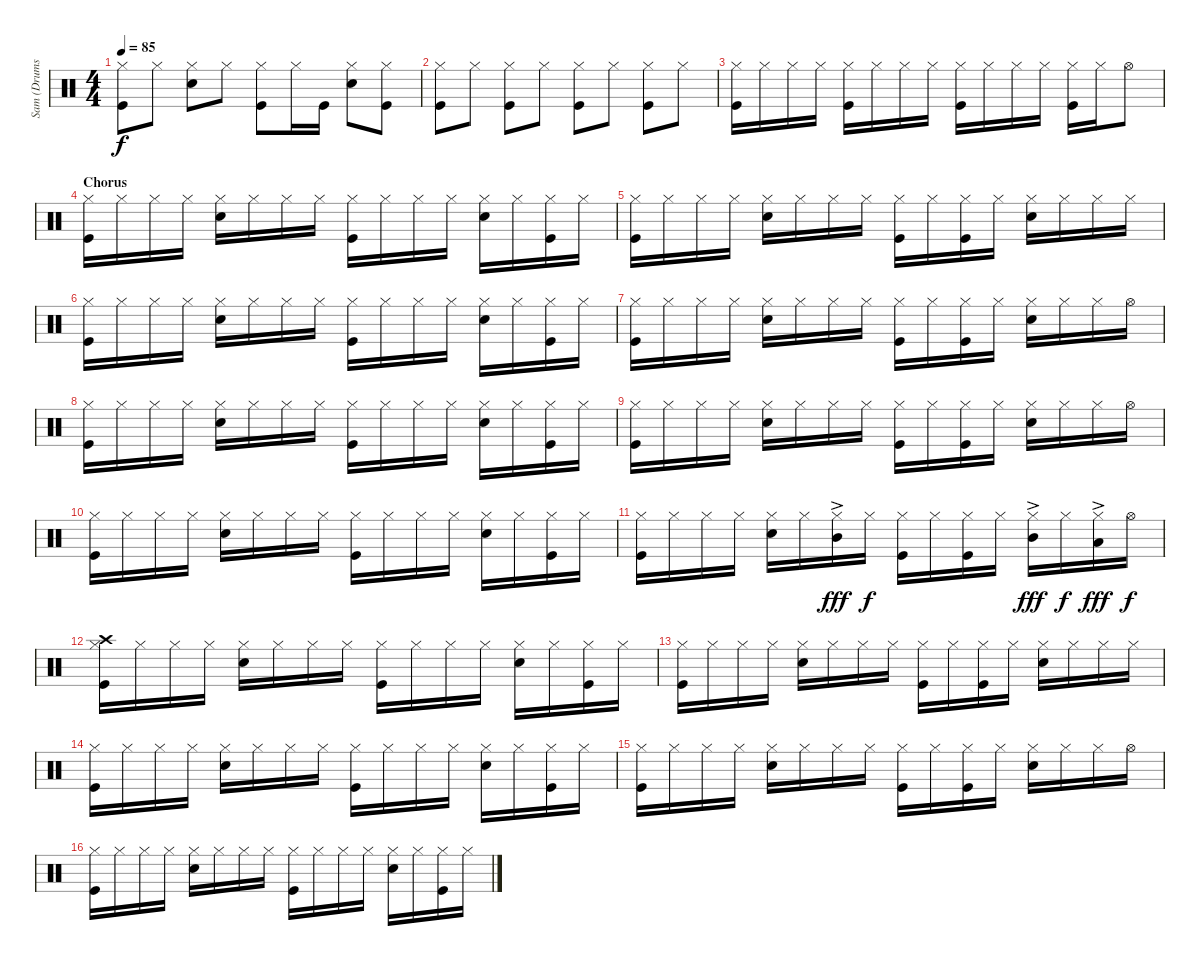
\track ("Sam (Drums)" "Sam (Drums") {instrument percussion}
\staff {score}
\articulation defaults
\ts (4 4)
\tempo 85
\clef neutral
\ks c
("Hi-Hat (closed)" "Kick (hit)").8{dy f} "Hi-Hat (closed)".8 ("Hi-Hat (closed)" "Snare (hit) 2").8 "Hi-Hat (closed)".8 ("Hi-Hat (closed)" "Kick (hit)").8 "Hi-Hat (closed)".16 "Kick (hit)".16 ("Hi-Hat (closed)" "Snare (hit) 2").8 ("Hi-Hat (closed)" "Kick (hit)").8 |
("Hi-Hat (closed)" "Kick (hit)").8 "Hi-Hat (closed)".8 ("Hi-Hat (closed)" "Kick (hit)").8 "Hi-Hat (closed)".8 ("Hi-Hat (closed)" "Kick (hit)").8 "Hi-Hat (closed)".8 ("Hi-Hat (closed)" "Kick (hit)").8 "Hi-Hat (closed)".8 |
("Hi-Hat (closed)" "Kick (hit)").16 "Hi-Hat (closed)".16 "Hi-Hat (closed)".16 "Hi-Hat (closed)".16 ("Hi-Hat (closed)" "Kick (hit)").16 "Hi-Hat (closed)".16 "Hi-Hat (closed)".16 "Hi-Hat (closed)".16 ("Hi-Hat (closed)" "Kick (hit)").16 "Hi-Hat (closed)".16 "Hi-Hat (closed)".16 "Hi-Hat (closed)".16 ("Hi-Hat (closed)" "Kick (hit)").16 "Hi-Hat (closed)".16 "Hi-Hat (open)".8 |
\section ("" "Chorus")
("Hi-Hat (closed)" "Kick (hit)").16 "Hi-Hat (closed)".16 "Hi-Hat (closed)".16 "Hi-Hat (closed)".16 ("Hi-Hat (closed)" "Snare (hit) 2").16 "Hi-Hat (closed)".16 "Hi-Hat (closed)".16 "Hi-Hat (closed)".16 ("Hi-Hat (closed)" "Kick (hit)").16 "Hi-Hat (closed)".16 "Hi-Hat (closed)".16 "Hi-Hat (closed)".16 ("Hi-Hat (closed)" "Snare (hit) 2").16 "Hi-Hat (closed)".16 ("Hi-Hat (closed)" "Kick (hit)").16 "Hi-Hat (closed)".16 |
("Hi-Hat (closed)" "Kick (hit)").16 "Hi-Hat (closed)".16 "Hi-Hat (closed)".16 "Hi-Hat (closed)".16 ("Hi-Hat (closed)" "Snare (hit) 2").16 "Hi-Hat (closed)".16 "Hi-Hat (closed)".16 "Hi-Hat (closed)".16 ("Hi-Hat (closed)" "Kick (hit)").16 "Hi-Hat (closed)".16 ("Hi-Hat (closed)" "Kick (hit)").16 "Hi-Hat (closed)".16 ("Hi-Hat (closed)" "Snare (hit) 2").16 "Hi-Hat (closed)".16 "Hi-Hat (closed)".16 "Hi-Hat (closed)".16 |
("Hi-Hat (closed)" "Kick (hit)").16 "Hi-Hat (closed)".16 "Hi-Hat (closed)".16 "Hi-Hat (closed)".16 ("Hi-Hat (closed)" "Snare (hit) 2").16 "Hi-Hat (closed)".16 "Hi-Hat (closed)".16 "Hi-Hat (closed)".16 ("Hi-Hat (closed)" "Kick (hit)").16 "Hi-Hat (closed)".16 "Hi-Hat (closed)".16 "Hi-Hat (closed)".16 ("Hi-Hat (closed)" "Snare (hit) 2").16 "Hi-Hat (closed)".16 ("Hi-Hat (closed)" "Kick (hit)").16 "Hi-Hat (closed)".16 |
("Hi-Hat (closed)" "Kick (hit)").16 "Hi-Hat (closed)".16 "Hi-Hat (closed)".16 "Hi-Hat (closed)".16 ("Hi-Hat (closed)" "Snare (hit) 2").16 "Hi-Hat (closed)".16 "Hi-Hat (closed)".16 "Hi-Hat (closed)".16 ("Hi-Hat (closed)" "Kick (hit)").16 "Hi-Hat (closed)".16 ("Hi-Hat (closed)" "Kick (hit)").16 "Hi-Hat (closed)".16 ("Hi-Hat (closed)" "Snare (hit) 2").16 "Hi-Hat (closed)".16 "Hi-Hat (closed)".16 "Hi-Hat (open)".16 |
("Hi-Hat (closed)" "Kick (hit)").16 "Hi-Hat (closed)".16 "Hi-Hat (closed)".16 "Hi-Hat (closed)".16 ("Hi-Hat (closed)" "Snare (hit) 2").16 "Hi-Hat (closed)".16 "Hi-Hat (closed)".16 "Hi-Hat (closed)".16 ("Hi-Hat (closed)" "Kick (hit)").16 "Hi-Hat (closed)".16 "Hi-Hat (closed)".16 "Hi-Hat (closed)".16 ("Hi-Hat (closed)" "Snare (hit) 2").16 "Hi-Hat (closed)".16 ("Hi-Hat (closed)" "Kick (hit)").16 "Hi-Hat (closed)".16 |
("Hi-Hat (closed)" "Kick (hit)").16 "Hi-Hat (closed)".16 "Hi-Hat (closed)".16 "Hi-Hat (closed)".16 ("Hi-Hat (closed)" "Snare (hit) 2").16 "Hi-Hat (closed)".16 "Hi-Hat (closed)".16 "Hi-Hat (closed)".16 ("Hi-Hat (closed)" "Kick (hit)").16 "Hi-Hat (closed)".16 ("Hi-Hat (closed)" "Kick (hit)").16 "Hi-Hat (closed)".16 ("Hi-Hat (closed)" "Snare (hit) 2").16 "Hi-Hat (closed)".16 "Hi-Hat (closed)".16 "Hi-Hat (open)".16 |
("Hi-Hat (closed)" "Kick (hit)").16 "Hi-Hat (closed)".16 "Hi-Hat (closed)".16 "Hi-Hat (closed)".16 ("Hi-Hat (closed)" "Snare (hit) 2").16 "Hi-Hat (closed)".16 "Hi-Hat (closed)".16 "Hi-Hat (closed)".16 ("Hi-Hat (closed)" "Kick (hit)").16 "Hi-Hat (closed)".16 "Hi-Hat (closed)".16 "Hi-Hat (closed)".16 ("Hi-Hat (closed)" "Snare (hit) 2").16 "Hi-Hat (closed)".16 ("Hi-Hat (closed)" "Kick (hit)").16 "Hi-Hat (closed)".16 |
("Hi-Hat (closed)" "Kick (hit)").16 "Hi-Hat (closed)".16 "Hi-Hat (closed)".16 "Hi-Hat (closed)".16 ("Hi-Hat (closed)" "Snare (hit) 2").16 "Hi-Hat (closed)".16 ("Hi-Hat (closed)" "Mid Tom (hit)"{ac}).16{dy fff} "Hi-Hat (closed)".16{dy f} ("Hi-Hat (closed)" "Kick (hit)").16 "Hi-Hat (closed)".16 ("Hi-Hat (closed)" "Kick (hit)").16 "Hi-Hat (closed)".16 ("Hi-Hat (closed)" "Mid Tom (hit)"{ac}).16{dy fff} "Hi-Hat (closed)".16{dy f} ("Hi-Hat (closed)" "Low Tom (hit)"{ac}).16{dy fff} "Hi-Hat (open)".16{dy f} |
("Crash high (hit)" "Hi-Hat (closed)" "Kick (hit)").16 "Hi-Hat (closed)".16 "Hi-Hat (closed)".16 "Hi-Hat (closed)".16 ("Hi-Hat (closed)" "Snare (hit) 2").16 "Hi-Hat (closed)".16 "Hi-Hat (closed)".16 "Hi-Hat (closed)".16 ("Hi-Hat (closed)" "Kick (hit)").16 "Hi-Hat (closed)".16 "Hi-Hat (closed)".16 "Hi-Hat (closed)".16 ("Hi-Hat (closed)" "Snare (hit) 2").16 "Hi-Hat (closed)".16 ("Hi-Hat (closed)" "Kick (hit)").16 "Hi-Hat (closed)".16 |
("Hi-Hat (closed)" "Kick (hit)").16 "Hi-Hat (closed)".16 "Hi-Hat (closed)".16 "Hi-Hat (closed)".16 ("Hi-Hat (closed)" "Snare (hit) 2").16 "Hi-Hat (closed)".16 "Hi-Hat (closed)".16 "Hi-Hat (closed)".16 ("Hi-Hat (closed)" "Kick (hit)").16 "Hi-Hat (closed)".16 ("Hi-Hat (closed)" "Kick (hit)").16 "Hi-Hat (closed)".16 ("Hi-Hat (closed)" "Snare (hit) 2").16 "Hi-Hat (closed)".16 "Hi-Hat (closed)".16 "Hi-Hat (closed)".16 |
("Hi-Hat (closed)" "Kick (hit)").16 "Hi-Hat (closed)".16 "Hi-Hat (closed)".16 "Hi-Hat (closed)".16 ("Hi-Hat (closed)" "Snare (hit) 2").16 "Hi-Hat (closed)".16 "Hi-Hat (closed)".16 "Hi-Hat (closed)".16 ("Hi-Hat (closed)" "Kick (hit)").16 "Hi-Hat (closed)".16 "Hi-Hat (closed)".16 "Hi-Hat (closed)".16 ("Hi-Hat (closed)" "Snare (hit) 2").16 "Hi-Hat (closed)".16 ("Hi-Hat (closed)" "Kick (hit)").16 "Hi-Hat (closed)".16 |
("Hi-Hat (closed)" "Kick (hit)").16 "Hi-Hat (closed)".16 "Hi-Hat (closed)".16 "Hi-Hat (closed)".16 ("Hi-Hat (closed)" "Snare (hit) 2").16 "Hi-Hat (closed)".16 "Hi-Hat (closed)".16 "Hi-Hat (closed)".16 ("Hi-Hat (closed)" "Kick (hit)").16 "Hi-Hat (closed)".16 ("Hi-Hat (closed)" "Kick (hit)").16 "Hi-Hat (closed)".16 ("Hi-Hat (closed)" "Snare (hit) 2").16 "Hi-Hat (closed)".16 "Hi-Hat (closed)".16 "Hi-Hat (open)".16 |
("Hi-Hat (closed)" "Kick (hit)").16 "Hi-Hat (closed)".16 "Hi-Hat (closed)".16 "Hi-Hat (closed)".16 ("Hi-Hat (closed)" "Snare (hit) 2").16 "Hi-Hat (closed)".16 "Hi-Hat (closed)".16 "Hi-Hat (closed)".16 ("Hi-Hat (closed)" "Kick (hit)").16 "Hi-Hat (closed)".16 "Hi-Hat (closed)".16 "Hi-Hat (closed)".16 ("Hi-Hat (closed)" "Snare (hit) 2").16 "Hi-Hat (closed)".16 ("Hi-Hat (closed)" "Kick (hit)").16 "Hi-Hat (closed)".16
